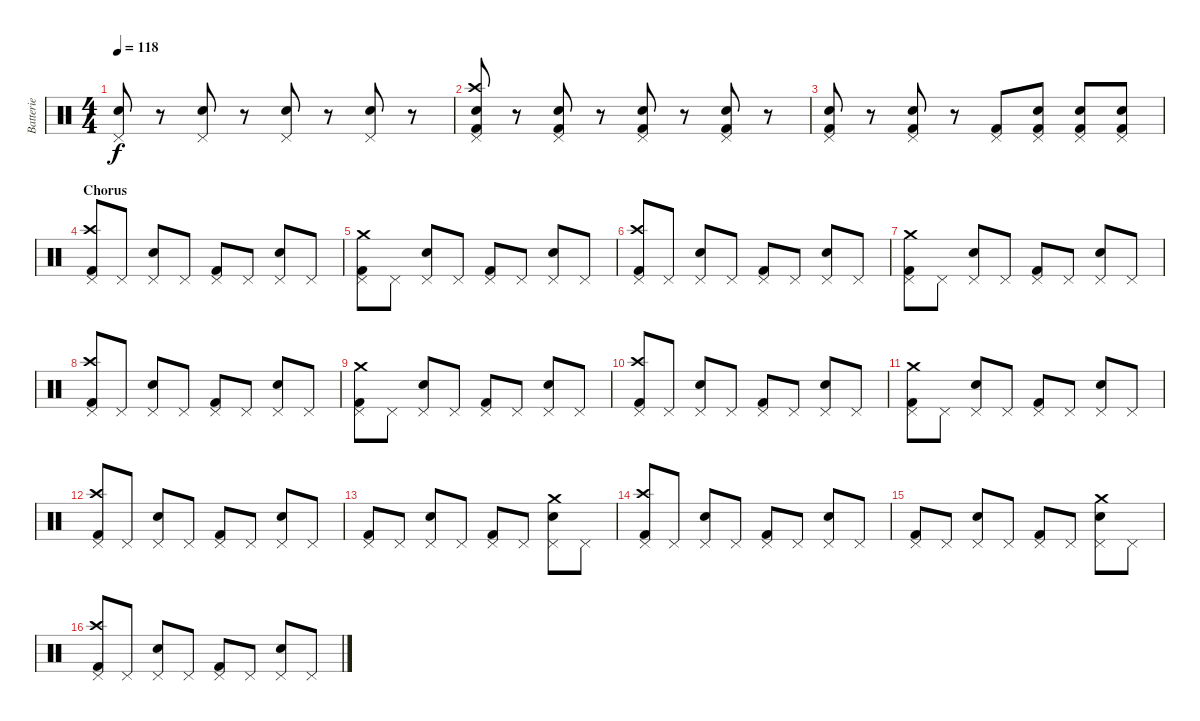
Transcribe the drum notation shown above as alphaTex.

\track ("Batterie" "Batterie") {instrument percussion}
\staff {score}
\articulation defaults
\ts (4 4)
\tempo 118
\clef neutral
\ks c
("Pedal Hi-Hat (hit)" "Snare (hit) 2").8{dy f} r.8 ("Pedal Hi-Hat (hit)" "Snare (hit) 2").8 r.8 ("Pedal Hi-Hat (hit)" "Snare (hit) 2").8 r.8 ("Pedal Hi-Hat (hit)" "Snare (hit) 2").8 r.8 |
("Pedal Hi-Hat (hit)" "Crash high (hit)" "Snare (hit) 2" "Kick (hit) 2").8 r.8 ("Pedal Hi-Hat (hit)" "Snare (hit) 2" "Kick (hit) 2").8 r.8 ("Pedal Hi-Hat (hit)" "Snare (hit) 2" "Kick (hit) 2").8 r.8 ("Pedal Hi-Hat (hit)" "Snare (hit) 2" "Kick (hit) 2").8 r.8 |
("Pedal Hi-Hat (hit)" "Snare (hit) 2" "Kick (hit) 2").8 r.8 ("Pedal Hi-Hat (hit)" "Snare (hit) 2" "Kick (hit) 2").8 r.8 ("Pedal Hi-Hat (hit)" "Kick (hit) 2").8 ("Pedal Hi-Hat (hit)" "Snare (hit) 2" "Kick (hit) 2").8 ("Pedal Hi-Hat (hit)" "Snare (hit) 2" "Kick (hit) 2").8 ("Pedal Hi-Hat (hit)" "Snare (hit) 2" "Kick (hit) 2").8 |
\section ("" "Chorus")
("Pedal Hi-Hat (hit)" "Crash high (hit)" "Kick (hit) 2").8 "Pedal Hi-Hat (hit)".8 ("Pedal Hi-Hat (hit)" "Snare (hit) 2").8 "Pedal Hi-Hat (hit)".8 ("Pedal Hi-Hat (hit)" "Kick (hit) 2").8 "Pedal Hi-Hat (hit)".8 ("Pedal Hi-Hat (hit)" "Snare (hit) 2").8 "Pedal Hi-Hat (hit)".8 |
("Pedal Hi-Hat (hit)" "Crash medium (hit)" "Kick (hit) 2").8 "Pedal Hi-Hat (hit)".8 ("Pedal Hi-Hat (hit)" "Snare (hit) 2").8 "Pedal Hi-Hat (hit)".8 ("Pedal Hi-Hat (hit)" "Kick (hit) 2").8 "Pedal Hi-Hat (hit)".8 ("Pedal Hi-Hat (hit)" "Snare (hit) 2").8 "Pedal Hi-Hat (hit)".8 |
("Pedal Hi-Hat (hit)" "Crash high (hit)" "Kick (hit) 2").8 "Pedal Hi-Hat (hit)".8 ("Pedal Hi-Hat (hit)" "Snare (hit) 2").8 "Pedal Hi-Hat (hit)".8 ("Pedal Hi-Hat (hit)" "Kick (hit) 2").8 "Pedal Hi-Hat (hit)".8 ("Pedal Hi-Hat (hit)" "Snare (hit) 2").8 "Pedal Hi-Hat (hit)".8 |
("Pedal Hi-Hat (hit)" "Crash medium (hit)" "Kick (hit) 2").8 "Pedal Hi-Hat (hit)".8 ("Pedal Hi-Hat (hit)" "Snare (hit) 2").8 "Pedal Hi-Hat (hit)".8 ("Pedal Hi-Hat (hit)" "Kick (hit) 2").8 "Pedal Hi-Hat (hit)".8 ("Pedal Hi-Hat (hit)" "Snare (hit) 2").8 "Pedal Hi-Hat (hit)".8 |
("Pedal Hi-Hat (hit)" "Crash high (hit)" "Kick (hit) 2").8 "Pedal Hi-Hat (hit)".8 ("Pedal Hi-Hat (hit)" "Snare (hit) 2").8 "Pedal Hi-Hat (hit)".8 ("Pedal Hi-Hat (hit)" "Kick (hit) 2").8 "Pedal Hi-Hat (hit)".8 ("Pedal Hi-Hat (hit)" "Snare (hit) 2").8 "Pedal Hi-Hat (hit)".8 |
("Pedal Hi-Hat (hit)" "Crash medium (hit)" "Kick (hit) 2").8 "Pedal Hi-Hat (hit)".8 ("Pedal Hi-Hat (hit)" "Snare (hit) 2").8 "Pedal Hi-Hat (hit)".8 ("Pedal Hi-Hat (hit)" "Kick (hit) 2").8 "Pedal Hi-Hat (hit)".8 ("Pedal Hi-Hat (hit)" "Snare (hit) 2").8 "Pedal Hi-Hat (hit)".8 |
("Pedal Hi-Hat (hit)" "Crash high (hit)" "Kick (hit) 2").8 "Pedal Hi-Hat (hit)".8 ("Pedal Hi-Hat (hit)" "Snare (hit) 2").8 "Pedal Hi-Hat (hit)".8 ("Pedal Hi-Hat (hit)" "Kick (hit) 2").8 "Pedal Hi-Hat (hit)".8 ("Pedal Hi-Hat (hit)" "Snare (hit) 2").8 "Pedal Hi-Hat (hit)".8 |
("Pedal Hi-Hat (hit)" "Crash medium (hit)" "Kick (hit) 2").8 "Pedal Hi-Hat (hit)".8 ("Pedal Hi-Hat (hit)" "Snare (hit) 2").8 "Pedal Hi-Hat (hit)".8 ("Pedal Hi-Hat (hit)" "Kick (hit) 2").8 "Pedal Hi-Hat (hit)".8 ("Pedal Hi-Hat (hit)" "Snare (hit) 2").8 "Pedal Hi-Hat (hit)".8 |
("Pedal Hi-Hat (hit)" "Crash high (hit)" "Kick (hit) 2").8 "Pedal Hi-Hat (hit)".8 ("Pedal Hi-Hat (hit)" "Snare (hit) 2").8 "Pedal Hi-Hat (hit)".8 ("Pedal Hi-Hat (hit)" "Kick (hit) 2").8 "Pedal Hi-Hat (hit)".8 ("Pedal Hi-Hat (hit)" "Snare (hit) 2").8 "Pedal Hi-Hat (hit)".8 |
("Pedal Hi-Hat (hit)" "Kick (hit) 2").8 "Pedal Hi-Hat (hit)".8 ("Pedal Hi-Hat (hit)" "Snare (hit) 2").8 "Pedal Hi-Hat (hit)".8 ("Pedal Hi-Hat (hit)" "Kick (hit) 2").8 "Pedal Hi-Hat (hit)".8 ("Pedal Hi-Hat (hit)" "Crash medium (hit)" "Snare (hit) 2").8 "Pedal Hi-Hat (hit)".8 |
("Pedal Hi-Hat (hit)" "Crash high (hit)" "Kick (hit) 2").8 "Pedal Hi-Hat (hit)".8 ("Pedal Hi-Hat (hit)" "Snare (hit) 2").8 "Pedal Hi-Hat (hit)".8 ("Pedal Hi-Hat (hit)" "Kick (hit) 2").8 "Pedal Hi-Hat (hit)".8 ("Pedal Hi-Hat (hit)" "Snare (hit) 2").8 "Pedal Hi-Hat (hit)".8 |
("Pedal Hi-Hat (hit)" "Kick (hit) 2").8 "Pedal Hi-Hat (hit)".8 ("Pedal Hi-Hat (hit)" "Snare (hit) 2").8 "Pedal Hi-Hat (hit)".8 ("Pedal Hi-Hat (hit)" "Kick (hit) 2").8 "Pedal Hi-Hat (hit)".8 ("Pedal Hi-Hat (hit)" "Crash medium (hit)" "Snare (hit) 2").8 "Pedal Hi-Hat (hit)".8 |
("Pedal Hi-Hat (hit)" "Crash high (hit)" "Kick (hit) 2").8 "Pedal Hi-Hat (hit)".8 ("Pedal Hi-Hat (hit)" "Snare (hit) 2").8 "Pedal Hi-Hat (hit)".8 ("Pedal Hi-Hat (hit)" "Kick (hit) 2").8 "Pedal Hi-Hat (hit)".8 ("Pedal Hi-Hat (hit)" "Snare (hit) 2").8 "Pedal Hi-Hat (hit)".8
